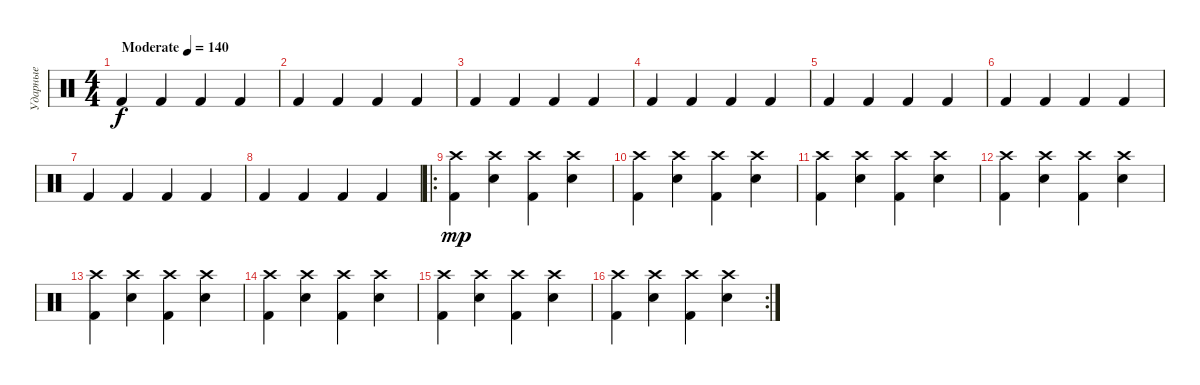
\track ("Ударные" "Ударные") {instrument percussion}
\staff {score}
\articulation defaults
\ts (4 4)
\tempo (140 "Moderate")
\clef neutral
\ks c "Kick (hit) 2".4{dy f} "Kick (hit) 2".4 "Kick (hit) 2".4 "Kick (hit) 2".4
|
"Kick (hit) 2".4 "Kick (hit) 2".4 "Kick (hit) 2".4 "Kick (hit) 2".4 |
"Kick (hit) 2".4 "Kick (hit) 2".4 "Kick (hit) 2".4 "Kick (hit) 2".4 |
"Kick (hit) 2".4 "Kick (hit) 2".4 "Kick (hit) 2".4 "Kick (hit) 2".4 |
"Kick (hit) 2".4 "Kick (hit) 2".4 "Kick (hit) 2".4 "Kick (hit) 2".4 |
"Kick (hit) 2".4 "Kick (hit) 2".4 "Kick (hit) 2".4 "Kick (hit) 2".4 |
"Kick (hit) 2".4 "Kick (hit) 2".4 "Kick (hit) 2".4 "Kick (hit) 2".4 |
"Kick (hit) 2".4 "Kick (hit) 2".4 "Kick (hit) 2".4 "Kick (hit) 2".4 |
\ro
("Crash high (hit)" "Kick (hit) 2").4{dy mp} ("Crash high (hit)" "Snare (hit) 2").4 ("Crash high (hit)" "Kick (hit) 2").4 ("Crash high (hit)" "Snare (hit) 2").4 |
("Crash high (hit)" "Kick (hit) 2").4 ("Crash high (hit)" "Snare (hit) 2").4 ("Crash high (hit)" "Kick (hit) 2").4 ("Crash high (hit)" "Snare (hit) 2").4 |
("Crash high (hit)" "Kick (hit) 2").4 ("Crash high (hit)" "Snare (hit) 2").4 ("Crash high (hit)" "Kick (hit) 2").4 ("Crash high (hit)" "Snare (hit) 2").4 |
("Crash high (hit)" "Kick (hit) 2").4 ("Crash high (hit)" "Snare (hit) 2").4 ("Crash high (hit)" "Kick (hit) 2").4 ("Crash high (hit)" "Snare (hit) 2").4 |
("Crash high (hit)" "Kick (hit) 2").4 ("Crash high (hit)" "Snare (hit) 2").4 ("Crash high (hit)" "Kick (hit) 2").4 ("Crash high (hit)" "Snare (hit) 2").4 |
("Crash high (hit)" "Kick (hit) 2").4 ("Crash high (hit)" "Snare (hit) 2").4 ("Crash high (hit)" "Kick (hit) 2").4 ("Crash high (hit)" "Snare (hit) 2").4 |
("Crash high (hit)" "Kick (hit) 2").4 ("Crash high (hit)" "Snare (hit) 2").4 ("Crash high (hit)" "Kick (hit) 2").4 ("Crash high (hit)" "Snare (hit) 2").4 |
\rc 2
("Crash high (hit)" "Kick (hit) 2").4 ("Crash high (hit)" "Snare (hit) 2").4 ("Crash high (hit)" "Kick (hit) 2").4 ("Crash high (hit)" "Snare (hit) 2").4
